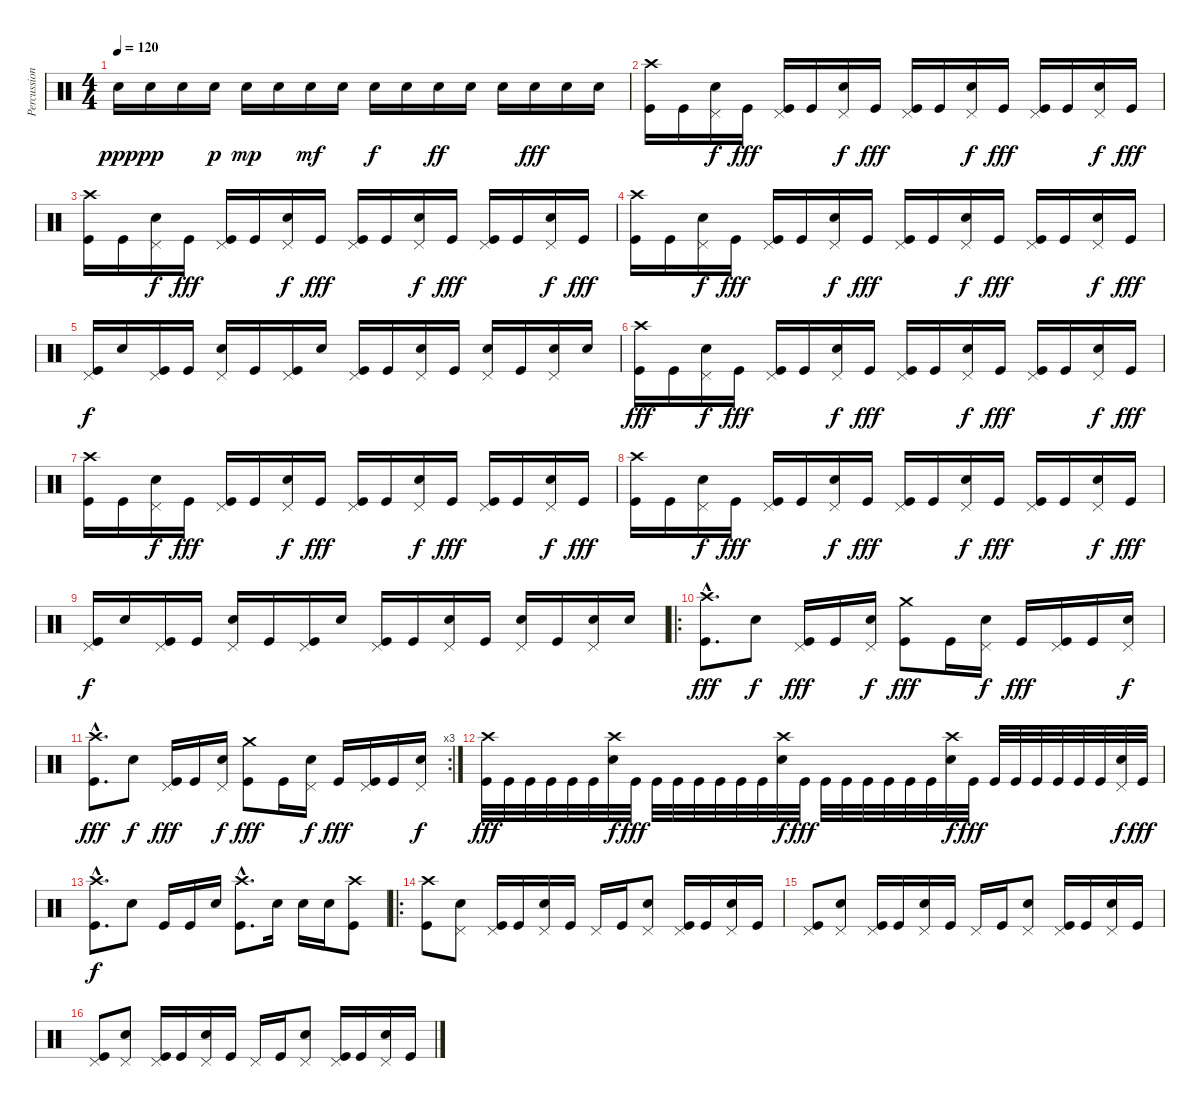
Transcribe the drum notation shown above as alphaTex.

\track ("Percussion" "Percussion") {instrument percussion}
\staff {score}
\articulation defaults
\ts (4 4)
\tempo 120
\clef neutral
\ks c "Snare (hit) 2".16{dy ppp} "Snare (hit) 2".16{dy pp} "Snare (hit) 2".16 "Snare (hit) 2".16{dy p} "Snare (hit) 2".16{dy mp} "Snare (hit) 2".16 "Snare (hit) 2".16{dy mf} "Snare (hit) 2".16 "Snare (hit) 2".16{dy f} "Snare (hit) 2".16 "Snare (hit) 2".16{dy ff} "Snare (hit) 2".16 "Snare (hit) 2".16 "Snare (hit) 2".16{dy fff} "Snare (hit) 2".16 "Snare (hit) 2".16
|
("Crash high (hit)" "Kick (hit)").16 "Kick (hit)".16 ("Pedal Hi-Hat (hit)" "Snare (hit) 2").16{dy f} "Kick (hit)".16{dy fff} ("Pedal Hi-Hat (hit)" "Kick (hit)").16 "Kick (hit)".16 ("Pedal Hi-Hat (hit)" "Snare (hit) 2").16{dy f} "Kick (hit)".16{dy fff} ("Pedal Hi-Hat (hit)" "Kick (hit)").16 "Kick (hit)".16 ("Pedal Hi-Hat (hit)" "Snare (hit) 2").16{dy f} "Kick (hit)".16{dy fff} ("Pedal Hi-Hat (hit)" "Kick (hit)").16 "Kick (hit)".16 ("Pedal Hi-Hat (hit)" "Snare (hit) 2").16{dy f} "Kick (hit)".16{dy fff} |
("Crash high (hit)" "Kick (hit)").16 "Kick (hit)".16 ("Pedal Hi-Hat (hit)" "Snare (hit) 2").16{dy f} "Kick (hit)".16{dy fff} ("Pedal Hi-Hat (hit)" "Kick (hit)").16 "Kick (hit)".16 ("Pedal Hi-Hat (hit)" "Snare (hit) 2").16{dy f} "Kick (hit)".16{dy fff} ("Pedal Hi-Hat (hit)" "Kick (hit)").16 "Kick (hit)".16 ("Pedal Hi-Hat (hit)" "Snare (hit) 2").16{dy f} "Kick (hit)".16{dy fff} ("Pedal Hi-Hat (hit)" "Kick (hit)").16 "Kick (hit)".16 ("Pedal Hi-Hat (hit)" "Snare (hit) 2").16{dy f} "Kick (hit)".16{dy fff} |
("Crash high (hit)" "Kick (hit)").16 "Kick (hit)".16 ("Pedal Hi-Hat (hit)" "Snare (hit) 2").16{dy f} "Kick (hit)".16{dy fff} ("Pedal Hi-Hat (hit)" "Kick (hit)").16 "Kick (hit)".16 ("Pedal Hi-Hat (hit)" "Snare (hit) 2").16{dy f} "Kick (hit)".16{dy fff} ("Pedal Hi-Hat (hit)" "Kick (hit)").16 "Kick (hit)".16 ("Pedal Hi-Hat (hit)" "Snare (hit) 2").16{dy f} "Kick (hit)".16{dy fff} ("Pedal Hi-Hat (hit)" "Kick (hit)").16 "Kick (hit)".16 ("Pedal Hi-Hat (hit)" "Snare (hit) 2").16{dy f} "Kick (hit)".16{dy fff} |
("Pedal Hi-Hat (hit)" "Kick (hit)").16{dy f} "Snare (hit) 2".16 ("Pedal Hi-Hat (hit)" "Kick (hit)").16 "Kick (hit)".16 ("Pedal Hi-Hat (hit)" "Snare (hit) 2").16 "Kick (hit)".16 ("Pedal Hi-Hat (hit)" "Kick (hit)").16 "Snare (hit) 2".16 ("Pedal Hi-Hat (hit)" "Kick (hit)").16 "Kick (hit)".16 ("Pedal Hi-Hat (hit)" "Snare (hit) 2").16 "Kick (hit)".16 ("Pedal Hi-Hat (hit)" "Snare (hit) 2").16 "Kick (hit)".16 ("Pedal Hi-Hat (hit)" "Snare (hit) 2").16 "Snare (hit) 2".16 |
("Crash high (hit)" "Kick (hit)").16{dy fff} "Kick (hit)".16 ("Pedal Hi-Hat (hit)" "Snare (hit) 2").16{dy f} "Kick (hit)".16{dy fff} ("Pedal Hi-Hat (hit)" "Kick (hit)").16 "Kick (hit)".16 ("Pedal Hi-Hat (hit)" "Snare (hit) 2").16{dy f} "Kick (hit)".16{dy fff} ("Pedal Hi-Hat (hit)" "Kick (hit)").16 "Kick (hit)".16 ("Pedal Hi-Hat (hit)" "Snare (hit) 2").16{dy f} "Kick (hit)".16{dy fff} ("Pedal Hi-Hat (hit)" "Kick (hit)").16 "Kick (hit)".16 ("Pedal Hi-Hat (hit)" "Snare (hit) 2").16{dy f} "Kick (hit)".16{dy fff} |
("Crash high (hit)" "Kick (hit)").16 "Kick (hit)".16 ("Pedal Hi-Hat (hit)" "Snare (hit) 2").16{dy f} "Kick (hit)".16{dy fff} ("Pedal Hi-Hat (hit)" "Kick (hit)").16 "Kick (hit)".16 ("Pedal Hi-Hat (hit)" "Snare (hit) 2").16{dy f} "Kick (hit)".16{dy fff} ("Pedal Hi-Hat (hit)" "Kick (hit)").16 "Kick (hit)".16 ("Pedal Hi-Hat (hit)" "Snare (hit) 2").16{dy f} "Kick (hit)".16{dy fff} ("Pedal Hi-Hat (hit)" "Kick (hit)").16 "Kick (hit)".16 ("Pedal Hi-Hat (hit)" "Snare (hit) 2").16{dy f} "Kick (hit)".16{dy fff} |
("Crash high (hit)" "Kick (hit)").16 "Kick (hit)".16 ("Pedal Hi-Hat (hit)" "Snare (hit) 2").16{dy f} "Kick (hit)".16{dy fff} ("Pedal Hi-Hat (hit)" "Kick (hit)").16 "Kick (hit)".16 ("Pedal Hi-Hat (hit)" "Snare (hit) 2").16{dy f} "Kick (hit)".16{dy fff} ("Pedal Hi-Hat (hit)" "Kick (hit)").16 "Kick (hit)".16 ("Pedal Hi-Hat (hit)" "Snare (hit) 2").16{dy f} "Kick (hit)".16{dy fff} ("Pedal Hi-Hat (hit)" "Kick (hit)").16 "Kick (hit)".16 ("Pedal Hi-Hat (hit)" "Snare (hit) 2").16{dy f} "Kick (hit)".16{dy fff} |
("Pedal Hi-Hat (hit)" "Kick (hit)").16{dy f} "Snare (hit) 2".16 ("Pedal Hi-Hat (hit)" "Kick (hit)").16 "Kick (hit)".16 ("Pedal Hi-Hat (hit)" "Snare (hit) 2").16 "Kick (hit)".16 ("Pedal Hi-Hat (hit)" "Kick (hit)").16 "Snare (hit) 2".16 ("Pedal Hi-Hat (hit)" "Kick (hit)").16 "Kick (hit)".16 ("Pedal Hi-Hat (hit)" "Snare (hit) 2").16 "Kick (hit)".16 ("Pedal Hi-Hat (hit)" "Snare (hit) 2").16 "Kick (hit)".16 ("Pedal Hi-Hat (hit)" "Snare (hit) 2").16 "Snare (hit) 2".16 |
\ro
("Crash high (hit)"{hac} "Kick (hit)"{hac}).8{d dy fff} "Snare (hit) 2".8{dy f} ("Pedal Hi-Hat (hit)" "Kick (hit)").16{dy fff} "Kick (hit)".16 ("Pedal Hi-Hat (hit)" "Snare (hit) 2").16{dy f} ("Crash medium (hit)" "Kick (hit)").8{dy fff} "Kick (hit)".16 ("Pedal Hi-Hat (hit)" "Snare (hit) 2").16{dy f} "Kick (hit)".16{dy fff} ("Pedal Hi-Hat (hit)" "Kick (hit)").16 "Kick (hit)".16 ("Pedal Hi-Hat (hit)" "Snare (hit) 2").16{dy f} |
\rc 3
("Crash high (hit)"{hac} "Kick (hit)"{hac}).8{d dy fff} "Snare (hit) 2".8{dy f} ("Pedal Hi-Hat (hit)" "Kick (hit)").16{dy fff} "Kick (hit)".16 ("Pedal Hi-Hat (hit)" "Snare (hit) 2").16{dy f} ("Crash medium (hit)" "Kick (hit)").8{dy fff} "Kick (hit)".16 ("Pedal Hi-Hat (hit)" "Snare (hit) 2").16{dy f} "Kick (hit)".16{dy fff} ("Pedal Hi-Hat (hit)" "Kick (hit)").16 "Kick (hit)".16 ("Pedal Hi-Hat (hit)" "Snare (hit) 2").16{dy f} |
("Crash high (hit)" "Kick (hit)").32{dy fff} "Kick (hit)".32 "Kick (hit)".32 "Kick (hit)".32 "Kick (hit)".32 "Kick (hit)".32 ("Crash high (hit)" "Snare (hit) 2").32{dy f} "Kick (hit)".32{dy fff} "Kick (hit)".32 "Kick (hit)".32 "Kick (hit)".32 "Kick (hit)".32 "Kick (hit)".32 "Kick (hit)".32 ("Crash high (hit)" "Snare (hit) 2").32{dy f} "Kick (hit)".32{dy fff} "Kick (hit)".32 "Kick (hit)".32 "Kick (hit)".32 "Kick (hit)".32 "Kick (hit)".32 "Kick (hit)".32 ("Crash high (hit)" "Snare (hit) 2").32{dy f} "Kick (hit)".32{dy fff} "Kick (hit)".32 "Kick (hit)".32 "Kick (hit)".32 "Kick (hit)".32 "Kick (hit)".32 "Kick (hit)".32 ("Pedal Hi-Hat (hit)" "Snare (hit) 2").32{dy f} "Kick (hit)".32{dy fff} |
("Crash high (hit)"{hac} "Kick (hit)"{hac}).8{d dy f} "Snare (hit) 2".8 "Kick (hit)".16 "Kick (hit)".16 "Snare (hit) 2".16 ("Crash high (hit)"{hac} "Kick (hit)"{hac}).8{d} "Snare (hit) 2".16 "Snare (hit) 2".16 "Snare (hit) 2".16 ("Crash high (hit)" "Kick (hit)").8 |
\ro
("Crash high (hit)" "Kick (hit)").8 ("Pedal Hi-Hat (hit)" "Snare (hit) 2").8 ("Pedal Hi-Hat (hit)" "Kick (hit)").16 "Kick (hit)".16 ("Pedal Hi-Hat (hit)" "Snare (hit) 2").16 "Kick (hit)".16 "Pedal Hi-Hat (hit)".16 "Kick (hit)".16 ("Pedal Hi-Hat (hit)" "Snare (hit) 2").8 ("Pedal Hi-Hat (hit)" "Kick (hit)").16 "Kick (hit)".16 ("Pedal Hi-Hat (hit)" "Snare (hit) 2").16 "Kick (hit)".16 |
("Pedal Hi-Hat (hit)" "Kick (hit)").8 ("Pedal Hi-Hat (hit)" "Snare (hit) 2").8 ("Pedal Hi-Hat (hit)" "Kick (hit)").16 "Kick (hit)".16 ("Pedal Hi-Hat (hit)" "Snare (hit) 2").16 "Kick (hit)".16 "Pedal Hi-Hat (hit)".16 "Kick (hit)".16 ("Pedal Hi-Hat (hit)" "Snare (hit) 2").8 ("Pedal Hi-Hat (hit)" "Kick (hit)").16 "Kick (hit)".16 ("Pedal Hi-Hat (hit)" "Snare (hit) 2").16 "Kick (hit)".16 |
("Pedal Hi-Hat (hit)" "Kick (hit)").8 ("Pedal Hi-Hat (hit)" "Snare (hit) 2").8 ("Pedal Hi-Hat (hit)" "Kick (hit)").16 "Kick (hit)".16 ("Pedal Hi-Hat (hit)" "Snare (hit) 2").16 "Kick (hit)".16 "Pedal Hi-Hat (hit)".16 "Kick (hit)".16 ("Pedal Hi-Hat (hit)" "Snare (hit) 2").8 ("Pedal Hi-Hat (hit)" "Kick (hit)").16 "Kick (hit)".16 ("Pedal Hi-Hat (hit)" "Snare (hit) 2").16 "Kick (hit)".16
